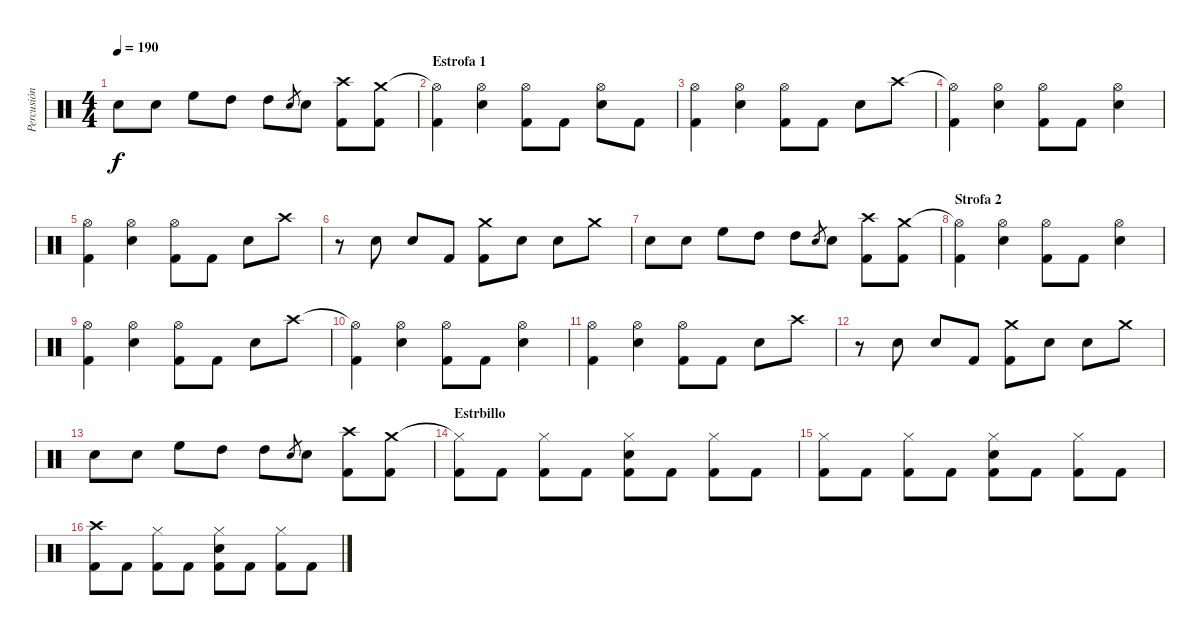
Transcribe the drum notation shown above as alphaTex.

\track ("Percusión" "Percusión") {instrument percussion}
\staff {score}
\articulation defaults
\ts (4 4)
\tempo 190
\clef neutral
\ks c "Snare (hit) 2".8{dy f} "Snare (hit) 2".8 "High Floor Tom (hit)".8 "High Tom (hit)".8 "High Tom (hit)".8 "Snare (hit) 2".8{gr} "Snare (hit) 2".8
("Crash high (hit)" "Kick (hit) 2").8 ("Crash medium (hit)" "Kick (hit) 2").8 |
\section ("" "Estrofa 1")
("Hi-Hat (open)"{t} "Kick (hit) 2").4 ("Hi-Hat (open)" "Snare (hit) 2").4 ("Hi-Hat (open)" "Kick (hit) 2").8 "Kick (hit) 2".8 ("Hi-Hat (open)" "Snare (hit) 2").8 "Kick (hit) 2".8 |
("Hi-Hat (open)" "Kick (hit) 2").4 ("Hi-Hat (open)" "Snare (hit) 2").4 ("Hi-Hat (open)" "Kick (hit) 2").8 "Kick (hit) 2".8 "Snare (hit) 2".8 "Crash high (hit)".8 |
("Hi-Hat (open)"{t} "Kick (hit) 2").4 ("Hi-Hat (open)" "Snare (hit) 2").4 ("Hi-Hat (open)" "Kick (hit) 2").8 "Kick (hit) 2".8 ("Hi-Hat (open)" "Snare (hit) 2").4 |
("Hi-Hat (open)" "Kick (hit) 2").4 ("Hi-Hat (open)" "Snare (hit) 2").4 ("Hi-Hat (open)" "Kick (hit) 2").8 "Kick (hit) 2".8 "Snare (hit) 2".8 "Crash high (hit)".8 |
r.8 "Snare (hit) 2".8 "Snare (hit) 2".8 "Kick (hit) 2".8 ("Crash medium (hit)" "Kick (hit) 2").8 "Snare (hit) 2".8 "Snare (hit) 2".8 "Crash medium (hit)".8 |
"Snare (hit) 2".8 "Snare (hit) 2".8 "High Floor Tom (hit)".8 "High Tom (hit)".8 "High Tom (hit)".8 "Snare (hit) 2".8{gr} "Snare (hit) 2".8 ("Crash high (hit)" "Kick (hit) 2").8 ("Crash medium (hit)" "Kick (hit) 2").8 |
\section ("" "Strofa 2")
("Hi-Hat (open)"{t} "Kick (hit) 2").4 ("Hi-Hat (open)" "Snare (hit) 2").4 ("Hi-Hat (open)" "Kick (hit) 2").8 "Kick (hit) 2".8 ("Hi-Hat (open)" "Snare (hit) 2").4 |
("Hi-Hat (open)" "Kick (hit) 2").4 ("Hi-Hat (open)" "Snare (hit) 2").4 ("Hi-Hat (open)" "Kick (hit) 2").8 "Kick (hit) 2".8 "Snare (hit) 2".8 "Crash high (hit)".8 |
("Hi-Hat (open)"{t} "Kick (hit) 2").4 ("Hi-Hat (open)" "Snare (hit) 2").4 ("Hi-Hat (open)" "Kick (hit) 2").8 "Kick (hit) 2".8 ("Hi-Hat (open)" "Snare (hit) 2").4 |
("Hi-Hat (open)" "Kick (hit) 2").4 ("Hi-Hat (open)" "Snare (hit) 2").4 ("Hi-Hat (open)" "Kick (hit) 2").8 "Kick (hit) 2".8 "Snare (hit) 2".8 "Crash high (hit)".8 |
r.8 "Snare (hit) 2".8 "Snare (hit) 2".8 "Kick (hit) 2".8 ("Crash medium (hit)" "Kick (hit) 2").8 "Snare (hit) 2".8 "Snare (hit) 2".8 "Crash medium (hit)".8 |
"Snare (hit) 2".8 "Snare (hit) 2".8 "High Floor Tom (hit)".8 "High Tom (hit)".8 "High Tom (hit)".8 "Snare (hit) 2".8{gr} "Snare (hit) 2".8 ("Crash high (hit)" "Kick (hit) 2").8 ("Crash medium (hit)" "Kick (hit) 2").8 |
\section ("" "Estrbillo")
("Hi-Hat (closed)"{t} "Kick (hit) 2").8 "Kick (hit) 2".8 ("Hi-Hat (closed)" "Kick (hit) 2").8 "Kick (hit) 2".8 ("Hi-Hat (closed)" "Snare (hit) 2" "Kick (hit) 2").8 "Kick (hit) 2".8 ("Hi-Hat (closed)" "Kick (hit) 2").8 "Kick (hit) 2".8 |
("Hi-Hat (closed)" "Kick (hit) 2").8 "Kick (hit) 2".8 ("Hi-Hat (closed)" "Kick (hit) 2").8 "Kick (hit) 2".8 ("Hi-Hat (closed)" "Snare (hit) 2" "Kick (hit) 2").8 "Kick (hit) 2".8 ("Hi-Hat (closed)" "Kick (hit) 2").8 "Kick (hit) 2".8 |
("Crash high (hit)" "Kick (hit) 2").8 "Kick (hit) 2".8 ("Hi-Hat (closed)" "Kick (hit) 2").8 "Kick (hit) 2".8 ("Hi-Hat (closed)" "Snare (hit) 2" "Kick (hit) 2").8 "Kick (hit) 2".8 ("Hi-Hat (closed)" "Kick (hit) 2").8 "Kick (hit) 2".8
